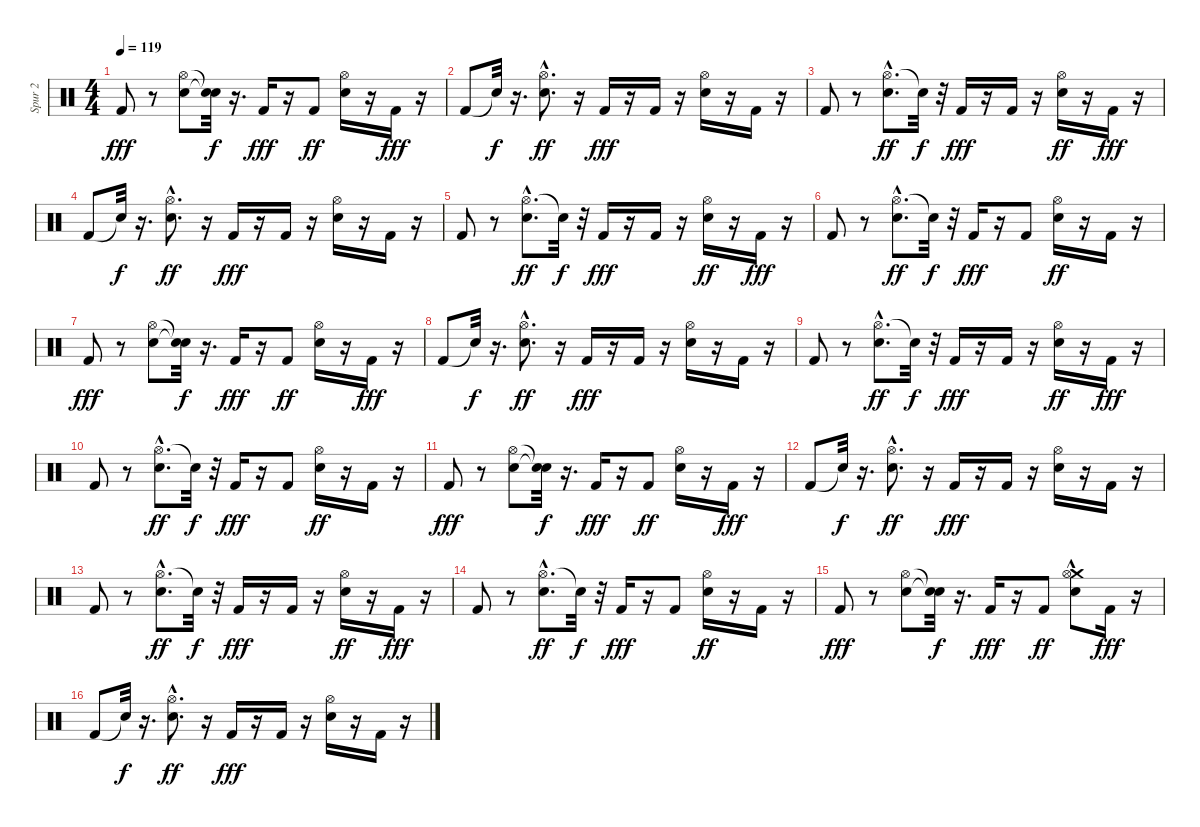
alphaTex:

\track ("Spur 2" "Spur 2") {instrument percussion}
\staff {score}
\articulation defaults
\ts (4 4)
\tempo 119
\clef neutral
\ks c "Kick (hit) 2".8{dy fff}
r.8 ("Hi-Hat (open)" "Electric Snare (hit)").8 ("Snare (hit)"{t} "Snare (hit)"{t}).32{dy f} r.16{d} "Kick (hit) 2".16{dy fff} r.16 "Kick (hit) 2".8{dy ff} ("Hi-Hat (open)" "Electric Snare (hit)").16 r.16 "Kick (hit) 2".16{dy fff} r.16 |
"Kick (hit) 2".8 "Snare (hit)"{t}.32{dy f} r.16{d} ("Hi-Hat (open)"{hac} "Electric Snare (hit)").8{d dy ff} r.16 "Kick (hit) 2".16{dy fff} r.16 "Kick (hit) 2".16 r.16 ("Hi-Hat (open)" "Electric Snare (hit)").16 r.16 "Kick (hit) 2".16 r.16 |
"Kick (hit) 2".8 r.8 ("Hi-Hat (open)"{hac} "Electric Snare (hit)").8{d dy ff} "Snare (hit)"{t}.32{dy f} r.32 "Kick (hit) 2".16{dy fff} r.16 "Kick (hit) 2".16 r.16 ("Hi-Hat (open)" "Electric Snare (hit)").16{dy ff} r.16 "Kick (hit) 2".16{dy fff} r.16 |
"Kick (hit) 2".8 "Snare (hit)"{t}.32{dy f} r.16{d} ("Hi-Hat (open)"{hac} "Electric Snare (hit)").8{d dy ff} r.16 "Kick (hit) 2".16{dy fff} r.16 "Kick (hit) 2".16 r.16 ("Hi-Hat (open)" "Electric Snare (hit)").16 r.16 "Kick (hit) 2".16 r.16 |
"Kick (hit) 2".8 r.8 ("Hi-Hat (open)"{hac} "Electric Snare (hit)").8{d dy ff} "Snare (hit)"{t}.32{dy f} r.32 "Kick (hit) 2".16{dy fff} r.16 "Kick (hit) 2".16 r.16 ("Hi-Hat (open)" "Electric Snare (hit)").16{dy ff} r.16 "Kick (hit) 2".16{dy fff} r.16 |
"Kick (hit) 2".8 r.8 ("Hi-Hat (open)"{hac} "Electric Snare (hit)").8{d dy ff} "Snare (hit)"{t}.32{dy f} r.32 "Kick (hit) 2".16{dy fff} r.16 "Kick (hit) 2".8 ("Hi-Hat (open)" "Electric Snare (hit)").16{dy ff} r.16 "Kick (hit) 2".16 r.16 |
"Kick (hit) 2".8{dy fff} r.8 ("Hi-Hat (open)" "Electric Snare (hit)").8 ("Snare (hit)"{t} "Snare (hit)"{t}).32{dy f} r.16{d} "Kick (hit) 2".16{dy fff} r.16 "Kick (hit) 2".8{dy ff} ("Hi-Hat (open)" "Electric Snare (hit)").16 r.16 "Kick (hit) 2".16{dy fff} r.16 |
"Kick (hit) 2".8 "Snare (hit)"{t}.32{dy f} r.16{d} ("Hi-Hat (open)"{hac} "Electric Snare (hit)").8{d dy ff} r.16 "Kick (hit) 2".16{dy fff} r.16 "Kick (hit) 2".16 r.16 ("Hi-Hat (open)" "Electric Snare (hit)").16 r.16 "Kick (hit) 2".16 r.16 |
"Kick (hit) 2".8 r.8 ("Hi-Hat (open)"{hac} "Electric Snare (hit)").8{d dy ff} "Snare (hit)"{t}.32{dy f} r.32 "Kick (hit) 2".16{dy fff} r.16 "Kick (hit) 2".16 r.16 ("Hi-Hat (open)" "Electric Snare (hit)").16{dy ff} r.16 "Kick (hit) 2".16{dy fff} r.16 |
"Kick (hit) 2".8 r.8 ("Hi-Hat (open)"{hac} "Electric Snare (hit)").8{d dy ff} "Snare (hit)"{t}.32{dy f} r.32 "Kick (hit) 2".16{dy fff} r.16 "Kick (hit) 2".8 ("Hi-Hat (open)" "Electric Snare (hit)").16{dy ff} r.16 "Kick (hit) 2".16 r.16 |
"Kick (hit) 2".8{dy fff} r.8 ("Hi-Hat (open)" "Electric Snare (hit)").8 ("Snare (hit)"{t} "Snare (hit)"{t}).32{dy f} r.16{d} "Kick (hit) 2".16{dy fff} r.16 "Kick (hit) 2".8{dy ff} ("Hi-Hat (open)" "Electric Snare (hit)").16 r.16 "Kick (hit) 2".16{dy fff} r.16 |
"Kick (hit) 2".8 "Snare (hit)"{t}.32{dy f} r.16{d} ("Hi-Hat (open)"{hac} "Electric Snare (hit)").8{d dy ff} r.16 "Kick (hit) 2".16{dy fff} r.16 "Kick (hit) 2".16 r.16 ("Hi-Hat (open)" "Electric Snare (hit)").16 r.16 "Kick (hit) 2".16 r.16 |
"Kick (hit) 2".8 r.8 ("Hi-Hat (open)"{hac} "Electric Snare (hit)").8{d dy ff} "Snare (hit)"{t}.32{dy f} r.32 "Kick (hit) 2".16{dy fff} r.16 "Kick (hit) 2".16 r.16 ("Hi-Hat (open)" "Electric Snare (hit)").16{dy ff} r.16 "Kick (hit) 2".16{dy fff} r.16 |
"Kick (hit) 2".8 r.8 ("Hi-Hat (open)"{hac} "Electric Snare (hit)").8{d dy ff} "Snare (hit)"{t}.32{dy f} r.32 "Kick (hit) 2".16{dy fff} r.16 "Kick (hit) 2".8 ("Hi-Hat (open)" "Electric Snare (hit)").16{dy ff} r.16 "Kick (hit) 2".16 r.16 |
"Kick (hit) 2".8{dy fff} r.8 ("Hi-Hat (open)" "Electric Snare (hit)").8 ("Snare (hit)"{t} "Snare (hit)"{t}).32{dy f} r.16{d} "Kick (hit) 2".16{dy fff} r.16 "Kick (hit) 2".8{dy ff} ("Crash medium (hit)"{hac} "Hi-Hat (open)" "Electric Snare (hit)").8 "Kick (hit) 2".16{dy fff} r.16 |
"Kick (hit) 2".8 "Snare (hit)"{t}.32{dy f} r.16{d} ("Hi-Hat (open)"{hac} "Electric Snare (hit)").8{d dy ff} r.16 "Kick (hit) 2".16{dy fff} r.16 "Kick (hit) 2".16 r.16 ("Hi-Hat (open)" "Electric Snare (hit)").16 r.16 "Kick (hit) 2".16 r.16
